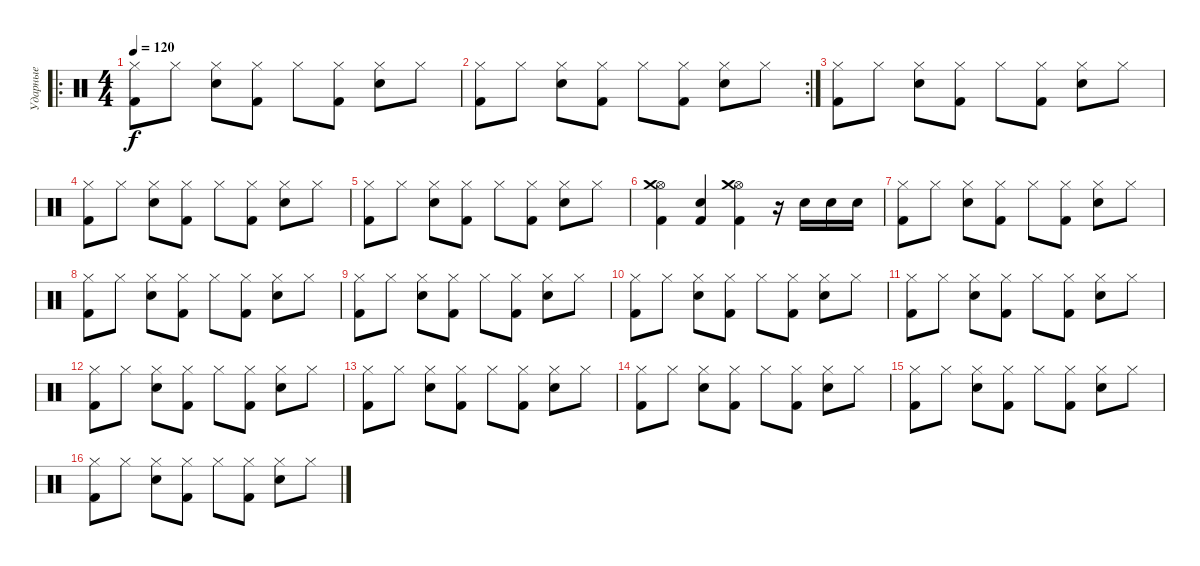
\track ("Ударные" "Ударные") {instrument percussion}
\staff {score}
\articulation defaults
\ro
\ts (4 4)
\tempo 120
\clef neutral
\ks c
("Hi-Hat (closed)" "Kick (hit) 2").8{dy f} "Hi-Hat (closed)".8 ("Hi-Hat (closed)" "Electric Snare (hit)").8 ("Hi-Hat (closed)" "Kick (hit) 2").8 "Hi-Hat (closed)".8 ("Hi-Hat (closed)" "Kick (hit) 2").8 ("Hi-Hat (closed)" "Electric Snare (hit)").8 "Hi-Hat (closed)".8 |
\rc 2
("Hi-Hat (closed)" "Kick (hit) 2").8 "Hi-Hat (closed)".8 ("Hi-Hat (closed)" "Electric Snare (hit)").8 ("Hi-Hat (closed)" "Kick (hit) 2").8 "Hi-Hat (closed)".8 ("Hi-Hat (closed)" "Kick (hit) 2").8 ("Hi-Hat (closed)" "Electric Snare (hit)").8 "Hi-Hat (closed)".8 |
("Hi-Hat (closed)" "Kick (hit) 2").8 "Hi-Hat (closed)".8 ("Hi-Hat (closed)" "Electric Snare (hit)").8 ("Hi-Hat (closed)" "Kick (hit) 2").8 "Hi-Hat (closed)".8 ("Hi-Hat (closed)" "Kick (hit) 2").8 ("Hi-Hat (closed)" "Electric Snare (hit)").8 "Hi-Hat (closed)".8 |
("Hi-Hat (closed)" "Kick (hit) 2").8 "Hi-Hat (closed)".8 ("Hi-Hat (closed)" "Electric Snare (hit)").8 ("Hi-Hat (closed)" "Kick (hit) 2").8 "Hi-Hat (closed)".8 ("Hi-Hat (closed)" "Kick (hit) 2").8 ("Hi-Hat (closed)" "Electric Snare (hit)").8 "Hi-Hat (closed)".8 |
("Hi-Hat (closed)" "Kick (hit) 2").8 "Hi-Hat (closed)".8 ("Hi-Hat (closed)" "Electric Snare (hit)").8 ("Hi-Hat (closed)" "Kick (hit) 2").8 "Hi-Hat (closed)".8 ("Hi-Hat (closed)" "Kick (hit) 2").8 ("Hi-Hat (closed)" "Electric Snare (hit)").8 "Hi-Hat (closed)".8 |
("Hi-Hat (open)" "Crash medium (hit)" "Kick (hit) 2").4 ("Kick (hit) 2" "Electric Snare (hit)").4 ("Hi-Hat (open)" "Crash medium (hit)" "Kick (hit) 2").4 r.16 "Electric Snare (hit)".16 "Electric Snare (hit)".16 "Electric Snare (hit)".16 |
("Hi-Hat (closed)" "Kick (hit) 2").8 "Hi-Hat (closed)".8 ("Hi-Hat (closed)" "Electric Snare (hit)").8 ("Hi-Hat (closed)" "Kick (hit) 2").8 "Hi-Hat (closed)".8 ("Hi-Hat (closed)" "Kick (hit) 2").8 ("Hi-Hat (closed)" "Electric Snare (hit)").8 "Hi-Hat (closed)".8 |
("Hi-Hat (closed)" "Kick (hit) 2").8 "Hi-Hat (closed)".8 ("Hi-Hat (closed)" "Electric Snare (hit)").8 ("Hi-Hat (closed)" "Kick (hit) 2").8 "Hi-Hat (closed)".8 ("Hi-Hat (closed)" "Kick (hit) 2").8 ("Hi-Hat (closed)" "Electric Snare (hit)").8 "Hi-Hat (closed)".8 |
("Hi-Hat (closed)" "Kick (hit) 2").8 "Hi-Hat (closed)".8 ("Hi-Hat (closed)" "Electric Snare (hit)").8 ("Hi-Hat (closed)" "Kick (hit) 2").8 "Hi-Hat (closed)".8 ("Hi-Hat (closed)" "Kick (hit) 2").8 ("Hi-Hat (closed)" "Electric Snare (hit)").8 "Hi-Hat (closed)".8 |
("Hi-Hat (closed)" "Kick (hit) 2").8 "Hi-Hat (closed)".8 ("Hi-Hat (closed)" "Electric Snare (hit)").8 ("Hi-Hat (closed)" "Kick (hit) 2").8 "Hi-Hat (closed)".8 ("Hi-Hat (closed)" "Kick (hit) 2").8 ("Hi-Hat (closed)" "Electric Snare (hit)").8 "Hi-Hat (closed)".8 |
("Hi-Hat (closed)" "Kick (hit) 2").8 "Hi-Hat (closed)".8 ("Hi-Hat (closed)" "Electric Snare (hit)").8 ("Hi-Hat (closed)" "Kick (hit) 2").8 "Hi-Hat (closed)".8 ("Hi-Hat (closed)" "Kick (hit) 2").8 ("Hi-Hat (closed)" "Electric Snare (hit)").8 "Hi-Hat (closed)".8 |
("Hi-Hat (closed)" "Kick (hit) 2").8 "Hi-Hat (closed)".8 ("Hi-Hat (closed)" "Electric Snare (hit)").8 ("Hi-Hat (closed)" "Kick (hit) 2").8 "Hi-Hat (closed)".8 ("Hi-Hat (closed)" "Kick (hit) 2").8 ("Hi-Hat (closed)" "Electric Snare (hit)").8 "Hi-Hat (closed)".8 |
("Hi-Hat (closed)" "Kick (hit) 2").8 "Hi-Hat (closed)".8 ("Hi-Hat (closed)" "Electric Snare (hit)").8 ("Hi-Hat (closed)" "Kick (hit) 2").8 "Hi-Hat (closed)".8 ("Hi-Hat (closed)" "Kick (hit) 2").8 ("Hi-Hat (closed)" "Electric Snare (hit)").8 "Hi-Hat (closed)".8 |
("Hi-Hat (closed)" "Kick (hit) 2").8 "Hi-Hat (closed)".8 ("Hi-Hat (closed)" "Electric Snare (hit)").8 ("Hi-Hat (closed)" "Kick (hit) 2").8 "Hi-Hat (closed)".8 ("Hi-Hat (closed)" "Kick (hit) 2").8 ("Hi-Hat (closed)" "Electric Snare (hit)").8 "Hi-Hat (closed)".8 |
("Hi-Hat (closed)" "Kick (hit) 2").8 "Hi-Hat (closed)".8 ("Hi-Hat (closed)" "Electric Snare (hit)").8 ("Hi-Hat (closed)" "Kick (hit) 2").8 "Hi-Hat (closed)".8 ("Hi-Hat (closed)" "Kick (hit) 2").8 ("Hi-Hat (closed)" "Electric Snare (hit)").8 "Hi-Hat (closed)".8 |
("Hi-Hat (closed)" "Kick (hit) 2").8 "Hi-Hat (closed)".8 ("Hi-Hat (closed)" "Electric Snare (hit)").8 ("Hi-Hat (closed)" "Kick (hit) 2").8 "Hi-Hat (closed)".8 ("Hi-Hat (closed)" "Kick (hit) 2").8 ("Hi-Hat (closed)" "Electric Snare (hit)").8 "Hi-Hat (closed)".8
